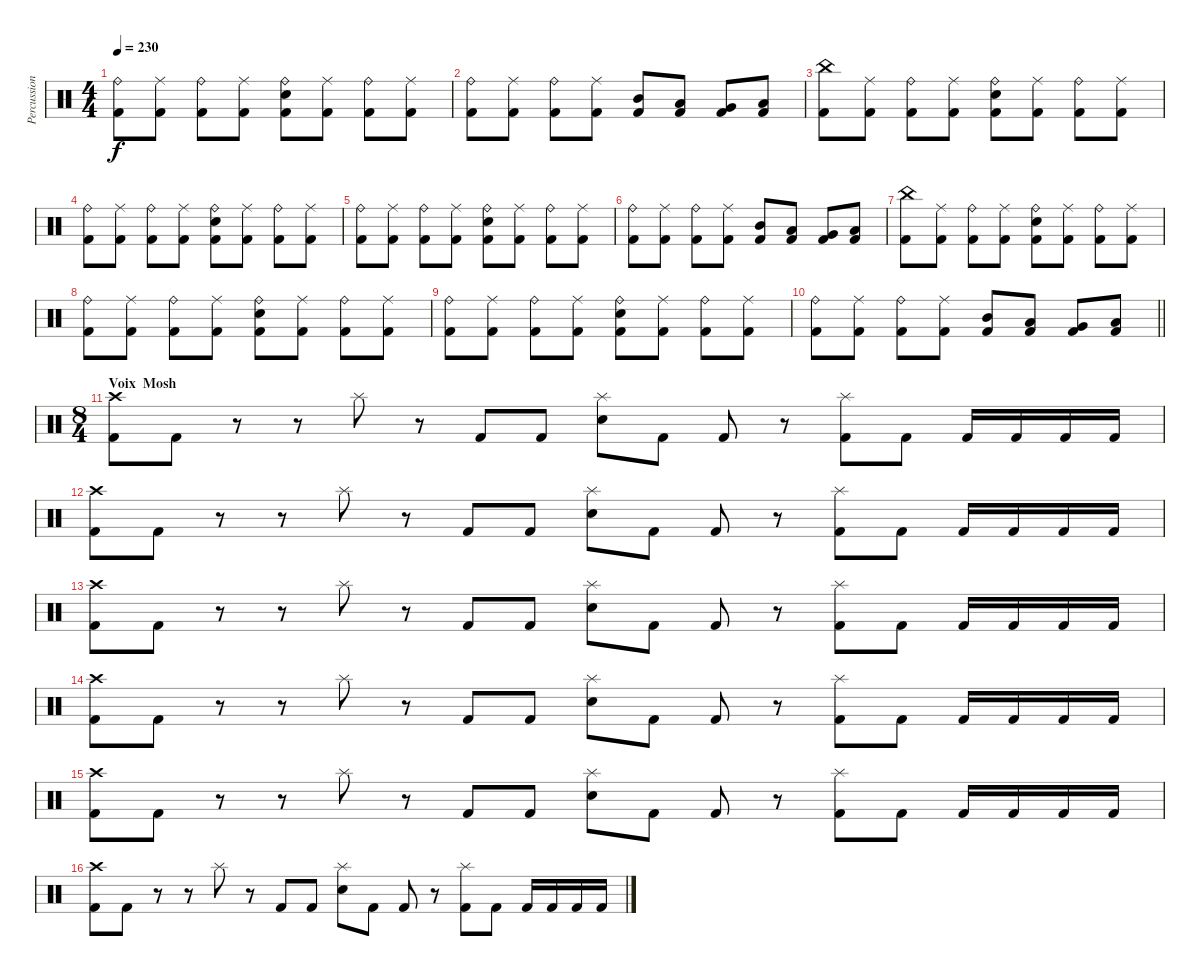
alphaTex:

\track ("Percussions" "Percussion") {instrument percussion}
\staff {score}
\articulation defaults
\ts (4 4)
\tempo 230
\clef neutral
\ks c
("Ride (bell)" "Kick (hit) 2").8{dy f} ("Ride (middle)" "Kick (hit) 2").8 ("Ride (bell)" "Kick (hit) 2").8 ("Ride (middle)" "Kick (hit) 2").8 ("Ride (bell)" "Electric Snare (hit)" "Kick (hit) 2").8 ("Ride (middle)" "Kick (hit) 2").8 ("Ride (bell)" "Kick (hit) 2").8 ("Ride (middle)" "Kick (hit) 2").8 |
("Ride (bell)" "Kick (hit) 2").8 ("Ride (middle)" "Kick (hit) 2").8 ("Ride (bell)" "Kick (hit) 2").8 ("Ride (middle)" "Kick (hit) 2").8 ("Mid Tom (hit)" "Kick (hit) 2").8 ("Low Tom (hit)" "Kick (hit) 2").8 ("Very Low Tom (hit)" "Kick (hit) 2").8 ("Low Floor Tom (hit)" "Kick (hit) 2").8 |
("China (hit)" "Kick (hit) 2").8 ("Ride (middle)" "Kick (hit) 2").8 ("Ride (bell)" "Kick (hit) 2").8 ("Ride (middle)" "Kick (hit) 2").8 ("Ride (bell)" "Electric Snare (hit)" "Kick (hit) 2").8 ("Ride (middle)" "Kick (hit) 2").8 ("Ride (bell)" "Kick (hit) 2").8 ("Ride (middle)" "Kick (hit) 2").8 |
("Ride (bell)" "Kick (hit) 2").8 ("Ride (middle)" "Kick (hit) 2").8 ("Ride (bell)" "Kick (hit) 2").8 ("Ride (middle)" "Kick (hit) 2").8 ("Ride (bell)" "Electric Snare (hit)" "Kick (hit) 2").8 ("Ride (middle)" "Kick (hit) 2").8 ("Ride (bell)" "Kick (hit) 2").8 ("Ride (middle)" "Kick (hit) 2").8 |
("Ride (bell)" "Kick (hit) 2").8 ("Ride (middle)" "Kick (hit) 2").8 ("Ride (bell)" "Kick (hit) 2").8 ("Ride (middle)" "Kick (hit) 2").8 ("Ride (bell)" "Electric Snare (hit)" "Kick (hit) 2").8 ("Ride (middle)" "Kick (hit) 2").8 ("Ride (bell)" "Kick (hit) 2").8 ("Ride (middle)" "Kick (hit) 2").8 |
("Ride (bell)" "Kick (hit) 2").8 ("Ride (middle)" "Kick (hit) 2").8 ("Ride (bell)" "Kick (hit) 2").8 ("Ride (middle)" "Kick (hit) 2").8 ("Mid Tom (hit)" "Kick (hit) 2").8 ("Low Tom (hit)" "Kick (hit) 2").8 ("Very Low Tom (hit)" "Kick (hit) 2").8 ("Low Floor Tom (hit)" "Kick (hit) 2").8 |
("China (hit)" "Kick (hit) 2").8 ("Ride (middle)" "Kick (hit) 2").8 ("Ride (bell)" "Kick (hit) 2").8 ("Ride (middle)" "Kick (hit) 2").8 ("Ride (bell)" "Electric Snare (hit)" "Kick (hit) 2").8 ("Ride (middle)" "Kick (hit) 2").8 ("Ride (bell)" "Kick (hit) 2").8 ("Ride (middle)" "Kick (hit) 2").8 |
("Ride (bell)" "Kick (hit) 2").8 ("Ride (middle)" "Kick (hit) 2").8 ("Ride (bell)" "Kick (hit) 2").8 ("Ride (middle)" "Kick (hit) 2").8 ("Ride (bell)" "Electric Snare (hit)" "Kick (hit) 2").8 ("Ride (middle)" "Kick (hit) 2").8 ("Ride (bell)" "Kick (hit) 2").8 ("Ride (middle)" "Kick (hit) 2").8 |
("Ride (bell)" "Kick (hit) 2").8 ("Ride (middle)" "Kick (hit) 2").8 ("Ride (bell)" "Kick (hit) 2").8 ("Ride (middle)" "Kick (hit) 2").8 ("Ride (bell)" "Electric Snare (hit)" "Kick (hit) 2").8 ("Ride (middle)" "Kick (hit) 2").8 ("Ride (bell)" "Kick (hit) 2").8 ("Ride (middle)" "Kick (hit) 2").8 |
\barLineRight lightlight
("Ride (bell)" "Kick (hit) 2").8 ("Ride (middle)" "Kick (hit) 2").8 ("Ride (bell)" "Kick (hit) 2").8 ("Ride (middle)" "Kick (hit) 2").8 ("Mid Tom (hit)" "Kick (hit) 2").8 ("Low Tom (hit)" "Kick (hit) 2").8 ("Very Low Tom (hit)" "Kick (hit) 2").8 ("Low Floor Tom (hit)" "Kick (hit) 2").8 |
\ts (8 4)
\section ("" "Voix  Mosh")
("Kick (hit) 2" "Crash high (hit)").8 "Kick (hit) 2".8 r.8 r.8 "Splash (hit)".8 r.8 "Kick (hit) 2".8 "Kick (hit) 2".8 ("Electric Snare (hit)" "Splash (hit)").8 "Kick (hit) 2".8 "Kick (hit) 2".8 r.8 ("Kick (hit) 2" "Splash (hit)").8 "Kick (hit) 2".8 "Kick (hit) 2".16 "Kick (hit) 2".16 "Kick (hit) 2".16 "Kick (hit) 2".16 |
("Kick (hit) 2" "Crash high (hit)").8 "Kick (hit) 2".8 r.8 r.8 "Splash (hit)".8 r.8 "Kick (hit) 2".8 "Kick (hit) 2".8 ("Electric Snare (hit)" "Splash (hit)").8 "Kick (hit) 2".8 "Kick (hit) 2".8 r.8 ("Kick (hit) 2" "Splash (hit)").8 "Kick (hit) 2".8 "Kick (hit) 2".16 "Kick (hit) 2".16 "Kick (hit) 2".16 "Kick (hit) 2".16 |
("Kick (hit) 2" "Crash high (hit)").8 "Kick (hit) 2".8 r.8 r.8 "Splash (hit)".8 r.8 "Kick (hit) 2".8 "Kick (hit) 2".8 ("Electric Snare (hit)" "Splash (hit)").8 "Kick (hit) 2".8 "Kick (hit) 2".8 r.8 ("Kick (hit) 2" "Splash (hit)").8 "Kick (hit) 2".8 "Kick (hit) 2".16 "Kick (hit) 2".16 "Kick (hit) 2".16 "Kick (hit) 2".16 |
("Kick (hit) 2" "Crash high (hit)").8 "Kick (hit) 2".8 r.8 r.8 "Splash (hit)".8 r.8 "Kick (hit) 2".8 "Kick (hit) 2".8 ("Electric Snare (hit)" "Splash (hit)").8 "Kick (hit) 2".8 "Kick (hit) 2".8 r.8 ("Kick (hit) 2" "Splash (hit)").8 "Kick (hit) 2".8 "Kick (hit) 2".16 "Kick (hit) 2".16 "Kick (hit) 2".16 "Kick (hit) 2".16 |
("Kick (hit) 2" "Crash high (hit)").8 "Kick (hit) 2".8 r.8 r.8 "Splash (hit)".8 r.8 "Kick (hit) 2".8 "Kick (hit) 2".8 ("Electric Snare (hit)" "Splash (hit)").8 "Kick (hit) 2".8 "Kick (hit) 2".8 r.8 ("Kick (hit) 2" "Splash (hit)").8 "Kick (hit) 2".8 "Kick (hit) 2".16 "Kick (hit) 2".16 "Kick (hit) 2".16 "Kick (hit) 2".16 |
("Kick (hit) 2" "Crash high (hit)").8 "Kick (hit) 2".8 r.8 r.8 "Splash (hit)".8 r.8 "Kick (hit) 2".8 "Kick (hit) 2".8 ("Electric Snare (hit)" "Splash (hit)").8 "Kick (hit) 2".8 "Kick (hit) 2".8 r.8 ("Kick (hit) 2" "Splash (hit)").8 "Kick (hit) 2".8 "Kick (hit) 2".16 "Kick (hit) 2".16 "Kick (hit) 2".16 "Kick (hit) 2".16
